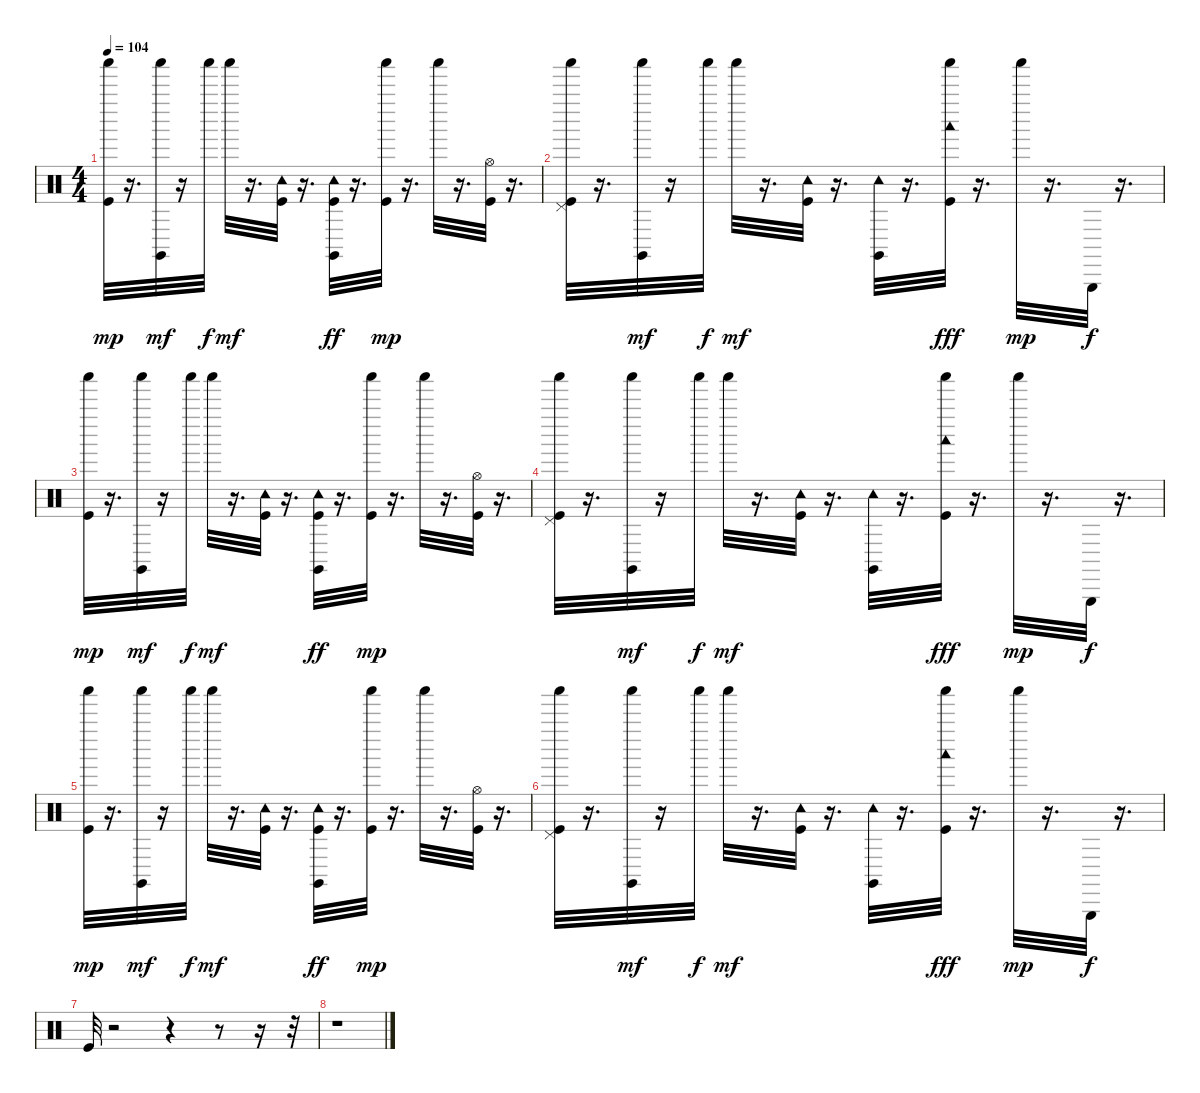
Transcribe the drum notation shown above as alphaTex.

\track "" {instrument percussion}
\staff {score}
\articulation defaults
\ts (4 4)
\tempo 104
\clef neutral
\ks c
("Shaker (hit)" "Kick (hit)").32{dy mp} r.16{d} ("Claves (hit)" "Shaker (hit)").32{dy mf} r.16 "Shaker (hit)".32{dy f} "Shaker (hit)".32{dy mf} r.16{d} ("Kick (hit)" "Tambourine (hit)").32 r.16{d} ("Tambourine (hit)" "Kick (hit)" "Claves (hit)").32{dy ff} r.16{d} ("Shaker (hit)" "Kick (hit)").32{dy mp} r.16{d} "Shaker (hit)".32 r.16{d} ("Hi-Hat (open)" "Kick (hit)").32 r.16{d} |
("Pedal Hi-Hat (hit)" "Kick (hit)" "Shaker (hit)").32 r.16{d} ("Claves (hit)" "Shaker (hit)").32{dy mf} r.16 "Shaker (hit)".32{dy f} "Shaker (hit)".32{dy mf} r.16{d} ("Kick (hit)" "Tambourine (hit)").32 r.16{d} ("Claves (hit)" "Tambourine (hit)").32 r.16{d} ("Kick (hit)" "Shaker (hit)" "Woodblock low (hit)").32{dy fff} r.16{d} "Shaker (hit)".32{dy mp} r.16{d} "Triangle (hit)".32{dy f} r.16{d} |
("Shaker (hit)" "Kick (hit)").32{dy mp} r.16{d} ("Claves (hit)" "Shaker (hit)").32{dy mf} r.16 "Shaker (hit)".32{dy f} "Shaker (hit)".32{dy mf} r.16{d} ("Kick (hit)" "Tambourine (hit)").32 r.16{d} ("Tambourine (hit)" "Kick (hit)" "Claves (hit)").32{dy ff} r.16{d} ("Shaker (hit)" "Kick (hit)").32{dy mp} r.16{d} "Shaker (hit)".32 r.16{d} ("Hi-Hat (open)" "Kick (hit)").32 r.16{d} |
("Pedal Hi-Hat (hit)" "Kick (hit)" "Shaker (hit)").32 r.16{d} ("Claves (hit)" "Shaker (hit)").32{dy mf} r.16 "Shaker (hit)".32{dy f} "Shaker (hit)".32{dy mf} r.16{d} ("Kick (hit)" "Tambourine (hit)").32 r.16{d} ("Claves (hit)" "Tambourine (hit)").32 r.16{d} ("Kick (hit)" "Shaker (hit)" "Woodblock low (hit)").32{dy fff} r.16{d} "Shaker (hit)".32{dy mp} r.16{d} "Triangle (hit)".32{dy f} r.16{d} |
("Shaker (hit)" "Kick (hit)").32{dy mp} r.16{d} ("Claves (hit)" "Shaker (hit)").32{dy mf} r.16 "Shaker (hit)".32{dy f} "Shaker (hit)".32{dy mf} r.16{d} ("Kick (hit)" "Tambourine (hit)").32 r.16{d} ("Tambourine (hit)" "Kick (hit)" "Claves (hit)").32{dy ff} r.16{d} ("Shaker (hit)" "Kick (hit)").32{dy mp} r.16{d} "Shaker (hit)".32 r.16{d} ("Hi-Hat (open)" "Kick (hit)").32 r.16{d} |
("Pedal Hi-Hat (hit)" "Kick (hit)" "Shaker (hit)").32 r.16{d} ("Claves (hit)" "Shaker (hit)").32{dy mf} r.16 "Shaker (hit)".32{dy f} "Shaker (hit)".32{dy mf} r.16{d} ("Kick (hit)" "Tambourine (hit)").32 r.16{d} ("Claves (hit)" "Tambourine (hit)").32 r.16{d} ("Kick (hit)" "Shaker (hit)" "Woodblock low (hit)").32{dy fff} r.16{d} "Shaker (hit)".32{dy mp} r.16{d} "Triangle (hit)".32{dy f} r.16{d} |
"Kick (hit)".32 r.2 r.4 r.8 r.16 r.32 |
r.1
